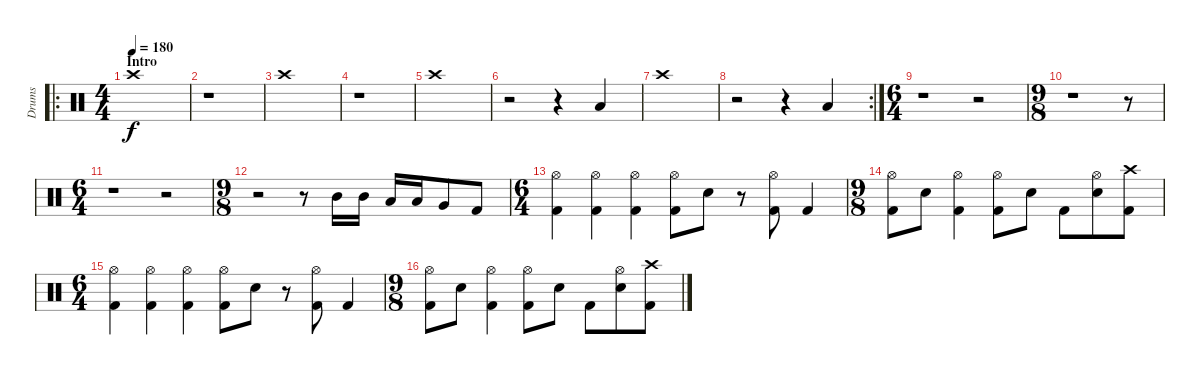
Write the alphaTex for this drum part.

\track ("Drums" "Drums") {instrument percussion}
\staff {score}
\articulation defaults
\ro
\ts (4 4)
\section ("" "Intro")
\tempo 180
\clef neutral
\ks c "Crash high (hit)".1{dy f}
|
r.1 |
"Crash high (hit)".1 |
r.1 |
"Crash high (hit)".1 |
r.2 r.4 "Low Floor Tom (hit)".4 |
"Crash high (hit)".1 |
\rc 2
r.2 r.4 "Low Floor Tom (hit)".4 |
\ts (6 4)
r.1 r.2 |
\ts (9 8)
r.1 r.8 |
\ts (6 4)
r.1 r.2 |
\ts (9 8)
r.2 r.8 "Mid Tom (hit)".16 "Mid Tom (hit)".16 "Low Tom (hit)".16 "Low Tom (hit)".16 "Very Low Tom (hit)".8 "Kick (hit) 2".8 |
\ts (6 4)
("Hi-Hat (open)" "Kick (hit) 2").4 ("Hi-Hat (open)" "Kick (hit) 2").4 ("Hi-Hat (open)" "Kick (hit) 2").4 ("Hi-Hat (open)" "Kick (hit) 2").8 "Snare (hit) 2".8 r.8 ("Hi-Hat (open)" "Kick (hit) 2").8 "Kick (hit) 2".4 |
\ts (9 8)
("Hi-Hat (open)" "Kick (hit) 2").8 "Snare (hit) 2".8 ("Hi-Hat (open)" "Kick (hit) 2").4 ("Hi-Hat (open)" "Kick (hit) 2").8 "Snare (hit) 2".8 "Kick (hit) 2".8 ("Hi-Hat (open)" "Snare (hit) 2").8 ("Crash high (hit)" "Kick (hit) 2").8 |
\ts (6 4)
("Hi-Hat (open)" "Kick (hit) 2").4 ("Hi-Hat (open)" "Kick (hit) 2").4 ("Hi-Hat (open)" "Kick (hit) 2").4 ("Hi-Hat (open)" "Kick (hit) 2").8 "Snare (hit) 2".8 r.8 ("Hi-Hat (open)" "Kick (hit) 2").8 "Kick (hit) 2".4 |
\ts (9 8)
("Hi-Hat (open)" "Kick (hit) 2").8 "Snare (hit) 2".8 ("Hi-Hat (open)" "Kick (hit) 2").4 ("Hi-Hat (open)" "Kick (hit) 2").8 "Snare (hit) 2".8 "Kick (hit) 2".8 ("Hi-Hat (open)" "Snare (hit) 2").8 ("Crash high (hit)" "Kick (hit) 2").8
